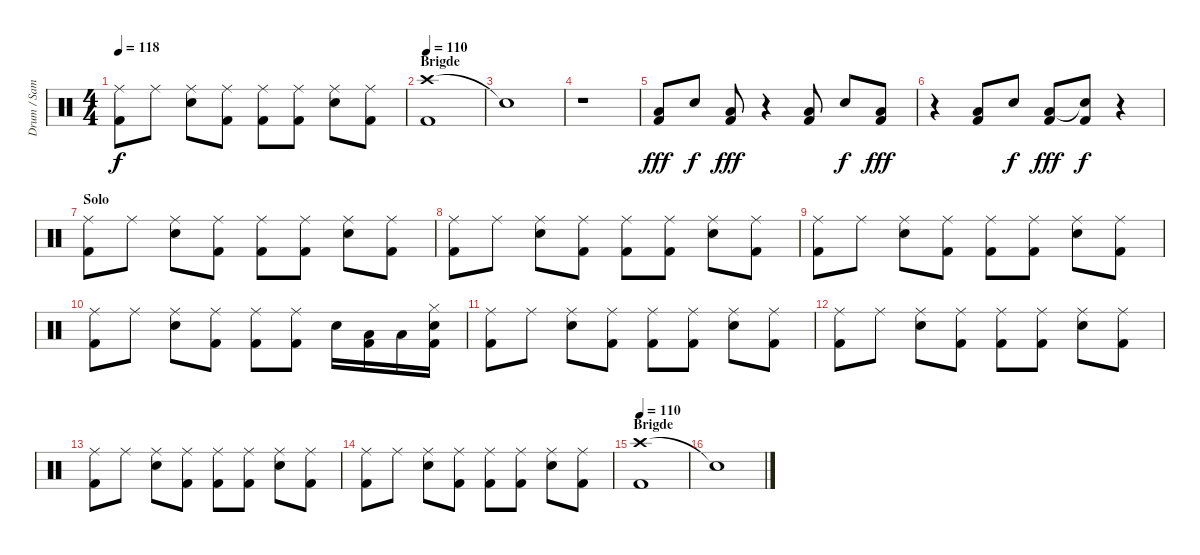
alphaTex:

\track ("Drum / Sam" "Drum / Sam") {instrument percussion}
\staff {score}
\articulation defaults
\ts (4 4)
\tempo 118
\clef neutral
\ks c
("Ride (middle)" "Kick (hit) 2").8{dy f} "Ride (middle)".8 ("Ride (middle)" "Snare (hit) 2").8 ("Ride (middle)" "Kick (hit) 2").8 ("Ride (middle)" "Kick (hit) 2").8 ("Ride (middle)" "Kick (hit) 2").8 ("Ride (middle)" "Snare (hit) 2").8 ("Ride (middle)" "Kick (hit) 2").8 |
\section ("" "Brigde")
\tempo 110
("Crash high (hit)" "Kick (hit) 2").1 |
"Snare (hit)"{t}.1 |
r.1 |
("Low Tom (hit)" "Kick (hit) 2").8{dy fff} "Snare (hit) 2".8{dy f} ("Low Tom (hit)" "Kick (hit) 2").8{dy fff} r.4 ("Low Tom (hit)" "Kick (hit) 2").8 "Snare (hit) 2".8{dy f} ("Low Tom (hit)" "Kick (hit) 2").8{dy fff} |
r.4 ("Low Tom (hit)" "Kick (hit) 2").8 "Snare (hit) 2".8{dy f} ("Low Tom (hit)" "Kick (hit) 2").8{dy fff} ("Snare (hit) 2"{t} "Kick (hit) 2").8{dy f} r.4 |
\section ("" "Solo ")
("Ride (middle)" "Kick (hit) 2").8 "Ride (middle)".8 ("Ride (middle)" "Snare (hit) 2").8 ("Ride (middle)" "Kick (hit) 2").8 ("Ride (middle)" "Kick (hit) 2").8 ("Ride (middle)" "Kick (hit) 2").8 ("Ride (middle)" "Snare (hit) 2").8 ("Ride (middle)" "Kick (hit) 2").8 |
("Ride (middle)" "Kick (hit) 2").8 "Ride (middle)".8 ("Ride (middle)" "Snare (hit) 2").8 ("Ride (middle)" "Kick (hit) 2").8 ("Ride (middle)" "Kick (hit) 2").8 ("Ride (middle)" "Kick (hit) 2").8 ("Ride (middle)" "Snare (hit) 2").8 ("Ride (middle)" "Kick (hit) 2").8 |
("Ride (middle)" "Kick (hit) 2").8 "Ride (middle)".8 ("Ride (middle)" "Snare (hit) 2").8 ("Ride (middle)" "Kick (hit) 2").8 ("Ride (middle)" "Kick (hit) 2").8 ("Ride (middle)" "Kick (hit) 2").8 ("Ride (middle)" "Snare (hit) 2").8 ("Ride (middle)" "Kick (hit) 2").8 |
("Ride (middle)" "Kick (hit) 2").8 "Ride (middle)".8 ("Ride (middle)" "Snare (hit) 2").8 ("Ride (middle)" "Kick (hit) 2").8 ("Ride (middle)" "Kick (hit) 2").8 ("Ride (middle)" "Kick (hit) 2").8 "Snare (hit) 2".16 ("Low Tom (hit)" "Kick (hit) 2").16 "Low Tom (hit)".16 ("Hi-Hat (closed)" "Snare (hit) 2" "Kick (hit) 2").16 |
("Ride (middle)" "Kick (hit) 2").8 "Ride (middle)".8 ("Ride (middle)" "Snare (hit) 2").8 ("Ride (middle)" "Kick (hit) 2").8 ("Ride (middle)" "Kick (hit) 2").8 ("Ride (middle)" "Kick (hit) 2").8 ("Ride (middle)" "Snare (hit) 2").8 ("Ride (middle)" "Kick (hit) 2").8 |
("Ride (middle)" "Kick (hit) 2").8 "Ride (middle)".8 ("Ride (middle)" "Snare (hit) 2").8 ("Ride (middle)" "Kick (hit) 2").8 ("Ride (middle)" "Kick (hit) 2").8 ("Ride (middle)" "Kick (hit) 2").8 ("Ride (middle)" "Snare (hit) 2").8 ("Ride (middle)" "Kick (hit) 2").8 |
("Ride (middle)" "Kick (hit) 2").8 "Ride (middle)".8 ("Ride (middle)" "Snare (hit) 2").8 ("Ride (middle)" "Kick (hit) 2").8 ("Ride (middle)" "Kick (hit) 2").8 ("Ride (middle)" "Kick (hit) 2").8 ("Ride (middle)" "Snare (hit) 2").8 ("Ride (middle)" "Kick (hit) 2").8 |
("Ride (middle)" "Kick (hit) 2").8 "Ride (middle)".8 ("Ride (middle)" "Snare (hit) 2").8 ("Ride (middle)" "Kick (hit) 2").8 ("Ride (middle)" "Kick (hit) 2").8 ("Ride (middle)" "Kick (hit) 2").8 ("Ride (middle)" "Snare (hit) 2").8 ("Ride (middle)" "Kick (hit) 2").8 |
\section ("" "Brigde")
\tempo 110
("Crash high (hit)" "Kick (hit) 2").1 |
"Snare (hit)"{t}.1
